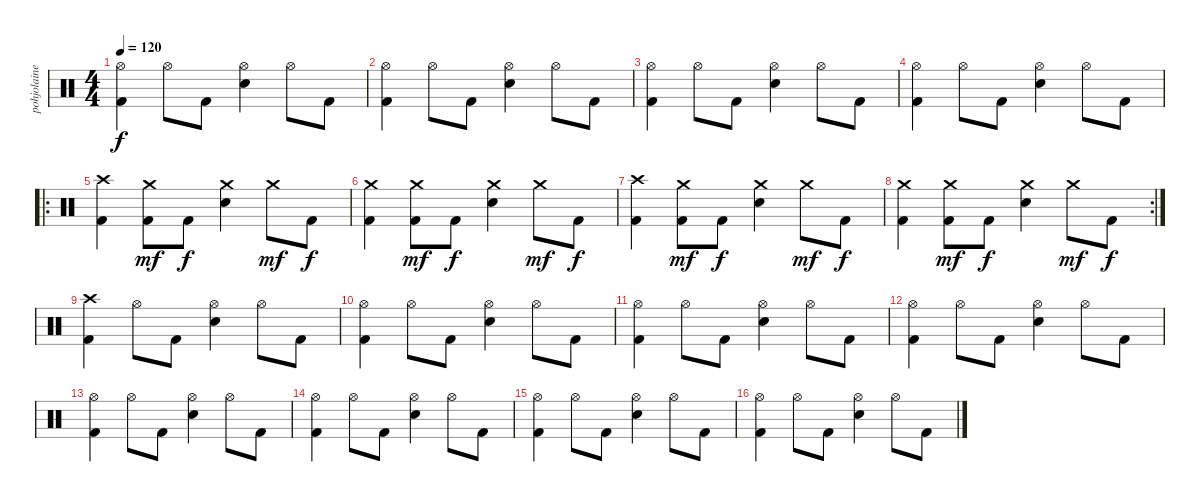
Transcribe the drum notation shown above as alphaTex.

\track ("pohjolainen" "pohjolaine") {instrument percussion}
\staff {score}
\articulation defaults
\ts (4 4)
\tempo 120
\clef neutral
\ks c
("Kick (hit) 2" "Hi-Hat (open)").4{dy f} "Hi-Hat (open)".8 "Kick (hit) 2".8 ("Hi-Hat (open)" "Snare (hit) 2").4 "Hi-Hat (open)".8 "Kick (hit) 2".8 |
("Kick (hit) 2" "Hi-Hat (open)").4 "Hi-Hat (open)".8 "Kick (hit) 2".8 ("Hi-Hat (open)" "Snare (hit) 2").4 "Hi-Hat (open)".8 "Kick (hit) 2".8 |
("Kick (hit) 2" "Hi-Hat (open)").4 "Hi-Hat (open)".8 "Kick (hit) 2".8 ("Hi-Hat (open)" "Snare (hit) 2").4 "Hi-Hat (open)".8 "Kick (hit) 2".8 |
("Kick (hit) 2" "Hi-Hat (open)").4 "Hi-Hat (open)".8 "Kick (hit) 2".8 ("Hi-Hat (open)" "Snare (hit) 2").4 "Hi-Hat (open)".8 "Kick (hit) 2".8 |
\ro
("Kick (hit) 2" "Crash high (hit)").4 ("Kick (hit) 2" "Crash medium (hit)").8{dy mf} "Kick (hit) 2".8{dy f} ("Crash medium (hit)" "Snare (hit) 2").4 "Crash medium (hit)".8{dy mf} "Kick (hit) 2".8{dy f} |
("Kick (hit) 2" "Crash medium (hit)").4 ("Kick (hit) 2" "Crash medium (hit)").8{dy mf} "Kick (hit) 2".8{dy f} ("Crash medium (hit)" "Snare (hit) 2").4 "Crash medium (hit)".8{dy mf} "Kick (hit) 2".8{dy f} |
("Kick (hit) 2" "Crash high (hit)").4 ("Kick (hit) 2" "Crash medium (hit)").8{dy mf} "Kick (hit) 2".8{dy f} ("Crash medium (hit)" "Snare (hit) 2").4 "Crash medium (hit)".8{dy mf} "Kick (hit) 2".8{dy f} |
\rc 2
("Kick (hit) 2" "Crash medium (hit)").4 ("Kick (hit) 2" "Crash medium (hit)").8{dy mf} "Kick (hit) 2".8{dy f} ("Crash medium (hit)" "Snare (hit) 2").4 "Crash medium (hit)".8{dy mf} "Kick (hit) 2".8{dy f} |
("Kick (hit) 2" "Crash high (hit)").4 "Hi-Hat (open)".8 "Kick (hit) 2".8 ("Hi-Hat (open)" "Snare (hit) 2").4 "Hi-Hat (open)".8 "Kick (hit) 2".8 |
("Kick (hit) 2" "Hi-Hat (open)").4 "Hi-Hat (open)".8 "Kick (hit) 2".8 ("Hi-Hat (open)" "Snare (hit) 2").4 "Hi-Hat (open)".8 "Kick (hit) 2".8 |
("Kick (hit) 2" "Hi-Hat (open)").4 "Hi-Hat (open)".8 "Kick (hit) 2".8 ("Hi-Hat (open)" "Snare (hit) 2").4 "Hi-Hat (open)".8 "Kick (hit) 2".8 |
("Kick (hit) 2" "Hi-Hat (open)").4 "Hi-Hat (open)".8 "Kick (hit) 2".8 ("Hi-Hat (open)" "Snare (hit) 2").4 "Hi-Hat (open)".8 "Kick (hit) 2".8 |
("Kick (hit) 2" "Hi-Hat (open)").4 "Hi-Hat (open)".8 "Kick (hit) 2".8 ("Hi-Hat (open)" "Snare (hit) 2").4 "Hi-Hat (open)".8 "Kick (hit) 2".8 |
("Kick (hit) 2" "Hi-Hat (open)").4 "Hi-Hat (open)".8 "Kick (hit) 2".8 ("Hi-Hat (open)" "Snare (hit) 2").4 "Hi-Hat (open)".8 "Kick (hit) 2".8 |
("Kick (hit) 2" "Hi-Hat (open)").4 "Hi-Hat (open)".8 "Kick (hit) 2".8 ("Hi-Hat (open)" "Snare (hit) 2").4 "Hi-Hat (open)".8 "Kick (hit) 2".8 |
("Kick (hit) 2" "Hi-Hat (open)").4 "Hi-Hat (open)".8 "Kick (hit) 2".8 ("Hi-Hat (open)" "Snare (hit) 2").4 "Hi-Hat (open)".8 "Kick (hit) 2".8
